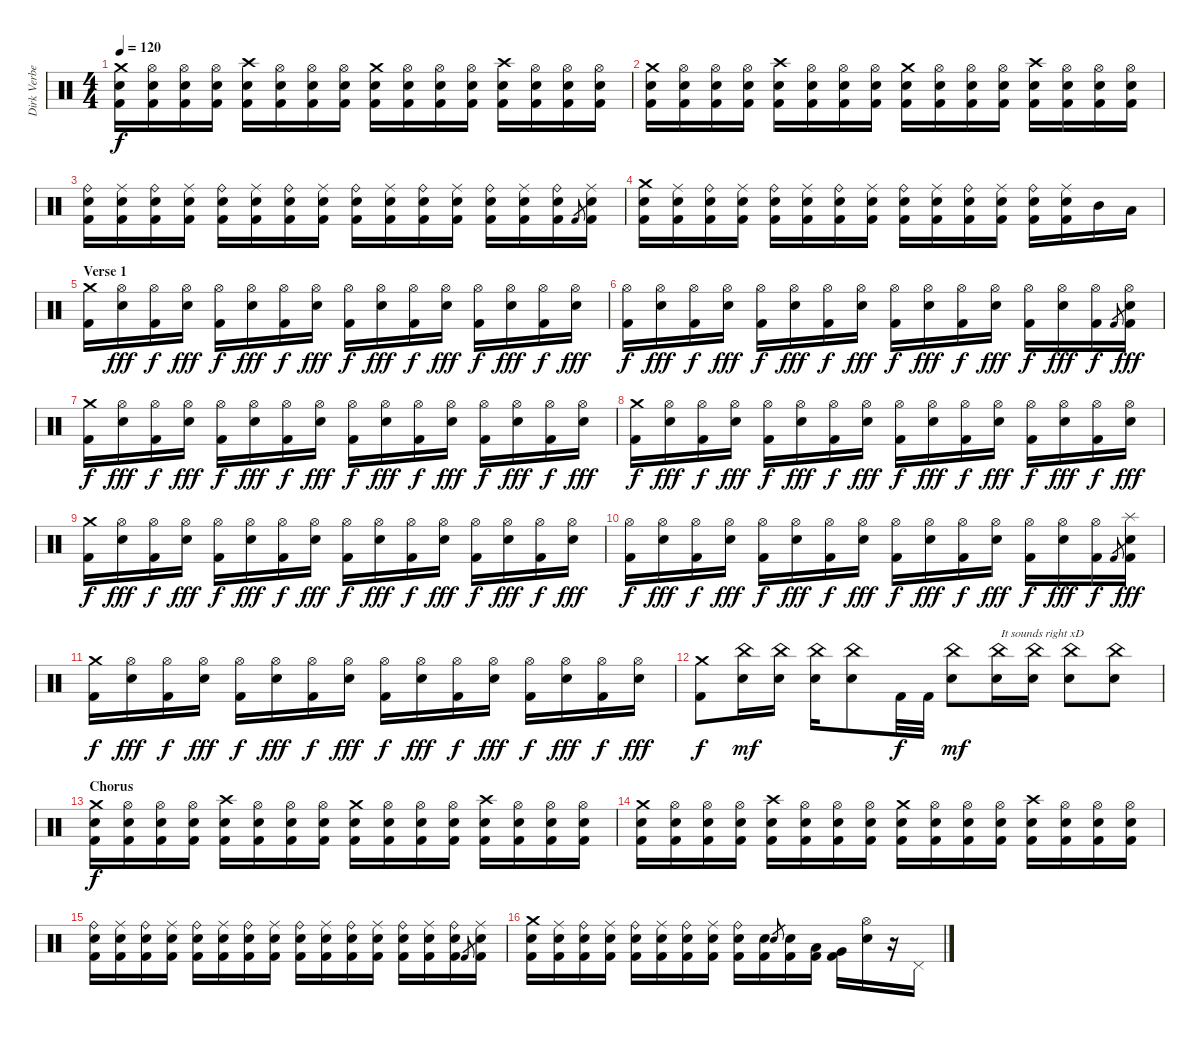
\track ("Dirk Verbeuren" "Dirk Verbe") {instrument percussion}
\staff {score}
\articulation defaults
\ts (4 4)
\tempo 120
\clef neutral
\ks c
("Kick (hit) 2" "Electric Snare (hit)" "Crash medium (hit)").16{dy f} ("Kick (hit) 2" "Electric Snare (hit)" "Hi-Hat (open)").16 ("Kick (hit) 2" "Electric Snare (hit)" "Hi-Hat (open)").16 ("Kick (hit) 2" "Electric Snare (hit)" "Hi-Hat (open)").16 ("Kick (hit) 2" "Electric Snare (hit)" "Crash high (hit)").16 ("Kick (hit) 2" "Electric Snare (hit)" "Hi-Hat (open)").16 ("Kick (hit) 2" "Electric Snare (hit)" "Hi-Hat (open)").16 ("Kick (hit) 2" "Electric Snare (hit)" "Hi-Hat (open)").16 ("Kick (hit) 2" "Electric Snare (hit)" "Crash medium (hit)").16 ("Kick (hit) 2" "Electric Snare (hit)" "Hi-Hat (open)").16 ("Kick (hit) 2" "Electric Snare (hit)" "Hi-Hat (open)").16 ("Kick (hit) 2" "Electric Snare (hit)" "Hi-Hat (open)").16 ("Kick (hit) 2" "Electric Snare (hit)" "Crash high (hit)").16 ("Kick (hit) 2" "Electric Snare (hit)" "Hi-Hat (open)").16 ("Kick (hit) 2" "Electric Snare (hit)" "Hi-Hat (open)").16 ("Kick (hit) 2" "Electric Snare (hit)" "Hi-Hat (open)").16 |
("Kick (hit) 2" "Electric Snare (hit)" "Crash medium (hit)").16 ("Kick (hit) 2" "Electric Snare (hit)" "Hi-Hat (open)").16 ("Kick (hit) 2" "Electric Snare (hit)" "Hi-Hat (open)").16 ("Kick (hit) 2" "Electric Snare (hit)" "Hi-Hat (open)").16 ("Kick (hit) 2" "Electric Snare (hit)" "Crash high (hit)").16 ("Kick (hit) 2" "Electric Snare (hit)" "Hi-Hat (open)").16 ("Kick (hit) 2" "Electric Snare (hit)" "Hi-Hat (open)").16 ("Kick (hit) 2" "Electric Snare (hit)" "Hi-Hat (open)").16 ("Kick (hit) 2" "Electric Snare (hit)" "Crash medium (hit)").16 ("Kick (hit) 2" "Electric Snare (hit)" "Hi-Hat (open)").16 ("Kick (hit) 2" "Electric Snare (hit)" "Hi-Hat (open)").16 ("Kick (hit) 2" "Electric Snare (hit)" "Hi-Hat (open)").16 ("Kick (hit) 2" "Electric Snare (hit)" "Crash high (hit)").16 ("Kick (hit) 2" "Electric Snare (hit)" "Hi-Hat (open)").16 ("Kick (hit) 2" "Electric Snare (hit)" "Hi-Hat (open)").16 ("Kick (hit) 2" "Electric Snare (hit)" "Hi-Hat (open)").16 |
("Kick (hit) 2" "Electric Snare (hit)" "Ride (bell)").16 ("Kick (hit) 2" "Electric Snare (hit)" "Ride (middle)").16 ("Kick (hit) 2" "Electric Snare (hit)" "Ride (bell)").16 ("Kick (hit) 2" "Electric Snare (hit)" "Ride (middle)").16 ("Kick (hit) 2" "Electric Snare (hit)" "Ride (bell)").16 ("Kick (hit) 2" "Electric Snare (hit)" "Ride (middle)").16 ("Kick (hit) 2" "Electric Snare (hit)" "Ride (bell)").16 ("Kick (hit) 2" "Electric Snare (hit)" "Ride (middle)").16 ("Kick (hit) 2" "Electric Snare (hit)" "Ride (bell)").16 ("Kick (hit) 2" "Electric Snare (hit)" "Ride (middle)").16 ("Kick (hit) 2" "Electric Snare (hit)" "Ride (bell)").16 ("Kick (hit) 2" "Electric Snare (hit)" "Ride (middle)").16 ("Kick (hit) 2" "Electric Snare (hit)" "Ride (bell)").16 ("Kick (hit) 2" "Electric Snare (hit)" "Ride (middle)").16 ("Kick (hit) 2" "Electric Snare (hit)" "Ride (bell)").16 "Kick (hit) 2".8{gr} ("Kick (hit) 2" "Electric Snare (hit)" "Ride (middle)").16 |
("Kick (hit) 2" "Electric Snare (hit)" "Crash medium (hit)").16 ("Kick (hit) 2" "Electric Snare (hit)" "Ride (middle)").16 ("Kick (hit) 2" "Electric Snare (hit)" "Ride (bell)").16 ("Kick (hit) 2" "Electric Snare (hit)" "Ride (middle)").16 ("Kick (hit) 2" "Electric Snare (hit)" "Ride (bell)").16 ("Kick (hit) 2" "Electric Snare (hit)" "Ride (middle)").16 ("Kick (hit) 2" "Electric Snare (hit)" "Ride (bell)").16 ("Kick (hit) 2" "Electric Snare (hit)" "Ride (middle)").16 ("Kick (hit) 2" "Electric Snare (hit)" "Ride (bell)").16 ("Kick (hit) 2" "Electric Snare (hit)" "Ride (middle)").16 ("Kick (hit) 2" "Electric Snare (hit)" "Ride (bell)").16 ("Kick (hit) 2" "Electric Snare (hit)" "Ride (middle)").16 ("Kick (hit) 2" "Electric Snare (hit)" "Ride (bell)").16 ("Kick (hit) 2" "Electric Snare (hit)" "Ride (middle)").16 "Mid Tom (hit)".16 "Low Tom (hit)".16 |
\section ("" "Verse 1")
("Kick (hit) 2" "Crash medium (hit)").16 ("Electric Snare (hit)" "Hi-Hat (open)").16{dy fff} ("Kick (hit) 2" "Hi-Hat (open)").16{dy f} ("Electric Snare (hit)" "Hi-Hat (open)").16{dy fff} ("Kick (hit) 2" "Hi-Hat (open)").16{dy f} ("Electric Snare (hit)" "Hi-Hat (open)").16{dy fff} ("Kick (hit) 2" "Hi-Hat (open)").16{dy f} ("Electric Snare (hit)" "Hi-Hat (open)").16{dy fff} ("Kick (hit) 2" "Hi-Hat (open)").16{dy f} ("Electric Snare (hit)" "Hi-Hat (open)").16{dy fff} ("Kick (hit) 2" "Hi-Hat (open)").16{dy f} ("Electric Snare (hit)" "Hi-Hat (open)").16{dy fff} ("Kick (hit) 2" "Hi-Hat (open)").16{dy f} ("Electric Snare (hit)" "Hi-Hat (open)").16{dy fff} ("Kick (hit) 2" "Hi-Hat (open)").16{dy f} ("Electric Snare (hit)" "Hi-Hat (open)").16{dy fff} |
("Kick (hit) 2" "Hi-Hat (open)").16{dy f} ("Electric Snare (hit)" "Hi-Hat (open)").16{dy fff} ("Kick (hit) 2" "Hi-Hat (open)").16{dy f} ("Electric Snare (hit)" "Hi-Hat (open)").16{dy fff} ("Kick (hit) 2" "Hi-Hat (open)").16{dy f} ("Electric Snare (hit)" "Hi-Hat (open)").16{dy fff} ("Kick (hit) 2" "Hi-Hat (open)").16{dy f} ("Electric Snare (hit)" "Hi-Hat (open)").16{dy fff} ("Kick (hit) 2" "Hi-Hat (open)").16{dy f} ("Electric Snare (hit)" "Hi-Hat (open)").16{dy fff} ("Kick (hit) 2" "Hi-Hat (open)").16{dy f} ("Electric Snare (hit)" "Hi-Hat (open)").16{dy fff} ("Kick (hit) 2" "Hi-Hat (open)").16{dy f} ("Electric Snare (hit)" "Hi-Hat (open)").16{dy fff} ("Kick (hit) 2" "Hi-Hat (open)").16{dy f} "Kick (hit) 2".8{gr} ("Kick (hit) 2" "Electric Snare (hit)" "Hi-Hat (open)").16{dy fff} |
("Kick (hit) 2" "Crash medium (hit)").16{dy f} ("Electric Snare (hit)" "Hi-Hat (open)").16{dy fff} ("Kick (hit) 2" "Hi-Hat (open)").16{dy f} ("Electric Snare (hit)" "Hi-Hat (open)").16{dy fff} ("Kick (hit) 2" "Hi-Hat (open)").16{dy f} ("Electric Snare (hit)" "Hi-Hat (open)").16{dy fff} ("Kick (hit) 2" "Hi-Hat (open)").16{dy f} ("Electric Snare (hit)" "Hi-Hat (open)").16{dy fff} ("Kick (hit) 2" "Hi-Hat (open)").16{dy f} ("Electric Snare (hit)" "Hi-Hat (open)").16{dy fff} ("Kick (hit) 2" "Hi-Hat (open)").16{dy f} ("Electric Snare (hit)" "Hi-Hat (open)").16{dy fff} ("Kick (hit) 2" "Hi-Hat (open)").16{dy f} ("Electric Snare (hit)" "Hi-Hat (open)").16{dy fff} ("Kick (hit) 2" "Hi-Hat (open)").16{dy f} ("Electric Snare (hit)" "Hi-Hat (open)").16{dy fff} |
("Kick (hit) 2" "Crash medium (hit)").16{dy f} ("Electric Snare (hit)" "Hi-Hat (open)").16{dy fff} ("Kick (hit) 2" "Hi-Hat (open)").16{dy f} ("Electric Snare (hit)" "Hi-Hat (open)").16{dy fff} ("Kick (hit) 2" "Hi-Hat (open)").16{dy f} ("Electric Snare (hit)" "Hi-Hat (open)").16{dy fff} ("Kick (hit) 2" "Hi-Hat (open)").16{dy f} ("Electric Snare (hit)" "Hi-Hat (open)").16{dy fff} ("Kick (hit) 2" "Hi-Hat (open)").16{dy f} ("Electric Snare (hit)" "Hi-Hat (open)").16{dy fff} ("Kick (hit) 2" "Hi-Hat (open)").16{dy f} ("Electric Snare (hit)" "Hi-Hat (open)").16{dy fff} ("Kick (hit) 2" "Hi-Hat (open)").16{dy f} ("Electric Snare (hit)" "Hi-Hat (open)").16{dy fff} ("Kick (hit) 2" "Hi-Hat (open)").16{dy f} ("Electric Snare (hit)" "Hi-Hat (open)").16{dy fff} |
("Kick (hit) 2" "Crash medium (hit)").16{dy f} ("Electric Snare (hit)" "Hi-Hat (open)").16{dy fff} ("Kick (hit) 2" "Hi-Hat (open)").16{dy f} ("Electric Snare (hit)" "Hi-Hat (open)").16{dy fff} ("Kick (hit) 2" "Hi-Hat (open)").16{dy f} ("Electric Snare (hit)" "Hi-Hat (open)").16{dy fff} ("Kick (hit) 2" "Hi-Hat (open)").16{dy f} ("Electric Snare (hit)" "Hi-Hat (open)").16{dy fff} ("Kick (hit) 2" "Hi-Hat (open)").16{dy f} ("Electric Snare (hit)" "Hi-Hat (open)").16{dy fff} ("Kick (hit) 2" "Hi-Hat (open)").16{dy f} ("Electric Snare (hit)" "Hi-Hat (open)").16{dy fff} ("Kick (hit) 2" "Hi-Hat (open)").16{dy f} ("Electric Snare (hit)" "Hi-Hat (open)").16{dy fff} ("Kick (hit) 2" "Hi-Hat (open)").16{dy f} ("Electric Snare (hit)" "Hi-Hat (open)").16{dy fff} |
("Kick (hit) 2" "Hi-Hat (open)").16{dy f} ("Electric Snare (hit)" "Hi-Hat (open)").16{dy fff} ("Kick (hit) 2" "Hi-Hat (open)").16{dy f} ("Electric Snare (hit)" "Hi-Hat (open)").16{dy fff} ("Kick (hit) 2" "Hi-Hat (open)").16{dy f} ("Electric Snare (hit)" "Hi-Hat (open)").16{dy fff} ("Kick (hit) 2" "Hi-Hat (open)").16{dy f} ("Electric Snare (hit)" "Hi-Hat (open)").16{dy fff} ("Kick (hit) 2" "Hi-Hat (open)").16{dy f} ("Electric Snare (hit)" "Hi-Hat (open)").16{dy fff} ("Kick (hit) 2" "Hi-Hat (open)").16{dy f} ("Electric Snare (hit)" "Hi-Hat (open)").16{dy fff} ("Kick (hit) 2" "Hi-Hat (open)").16{dy f} ("Electric Snare (hit)" "Hi-Hat (open)").16{dy fff} ("Kick (hit) 2" "Hi-Hat (open)").16{dy f} "Kick (hit) 2".8{gr} ("Kick (hit) 2" "Electric Snare (hit)" "Splash (hit)").16{dy fff} |
("Kick (hit) 2" "Crash medium (hit)").16{dy f} ("Electric Snare (hit)" "Hi-Hat (open)").16{dy fff} ("Kick (hit) 2" "Hi-Hat (open)").16{dy f} ("Electric Snare (hit)" "Hi-Hat (open)").16{dy fff} ("Kick (hit) 2" "Hi-Hat (open)").16{dy f} ("Electric Snare (hit)" "Hi-Hat (open)").16{dy fff} ("Kick (hit) 2" "Hi-Hat (open)").16{dy f} ("Electric Snare (hit)" "Hi-Hat (open)").16{dy fff} ("Kick (hit) 2" "Hi-Hat (open)").16{dy f} ("Electric Snare (hit)" "Hi-Hat (open)").16{dy fff} ("Kick (hit) 2" "Hi-Hat (open)").16{dy f} ("Electric Snare (hit)" "Hi-Hat (open)").16{dy fff} ("Kick (hit) 2" "Hi-Hat (open)").16{dy f} ("Electric Snare (hit)" "Hi-Hat (open)").16{dy fff} ("Kick (hit) 2" "Hi-Hat (open)").16{dy f} ("Electric Snare (hit)" "Hi-Hat (open)").16{dy fff} |
("Kick (hit) 2" "Crash medium (hit)").8{dy f} ("Electric Snare (hit)" "China (hit)").16{dy mf} ("Electric Snare (hit)" "China (hit)").16 ("Electric Snare (hit)" "China (hit)").16 ("Electric Snare (hit)" "China (hit)").8 "Kick (hit) 2".32{dy f} "Kick (hit) 2".32 ("Electric Snare (hit)" "China (hit)").8{dy mf} ("Electric Snare (hit)" "China (hit)").16{txt "It sounds right xD"} ("Electric Snare (hit)" "China (hit)").16 ("Electric Snare (hit)" "China (hit)").8 ("Electric Snare (hit)" "China (hit)").8 |
\section ("" "Chorus")
("Kick (hit) 2" "Electric Snare (hit)" "Crash medium (hit)").16{dy f} ("Kick (hit) 2" "Electric Snare (hit)" "Hi-Hat (open)").16 ("Kick (hit) 2" "Electric Snare (hit)" "Hi-Hat (open)").16 ("Kick (hit) 2" "Electric Snare (hit)" "Hi-Hat (open)").16 ("Kick (hit) 2" "Electric Snare (hit)" "Crash high (hit)").16 ("Kick (hit) 2" "Electric Snare (hit)" "Hi-Hat (open)").16 ("Kick (hit) 2" "Electric Snare (hit)" "Hi-Hat (open)").16 ("Kick (hit) 2" "Electric Snare (hit)" "Hi-Hat (open)").16 ("Kick (hit) 2" "Electric Snare (hit)" "Crash medium (hit)").16 ("Kick (hit) 2" "Electric Snare (hit)" "Hi-Hat (open)").16 ("Kick (hit) 2" "Electric Snare (hit)" "Hi-Hat (open)").16 ("Kick (hit) 2" "Electric Snare (hit)" "Hi-Hat (open)").16 ("Kick (hit) 2" "Electric Snare (hit)" "Crash high (hit)").16 ("Kick (hit) 2" "Electric Snare (hit)" "Hi-Hat (open)").16 ("Kick (hit) 2" "Electric Snare (hit)" "Hi-Hat (open)").16 ("Kick (hit) 2" "Electric Snare (hit)" "Hi-Hat (open)").16 |
("Kick (hit) 2" "Electric Snare (hit)" "Crash medium (hit)").16 ("Kick (hit) 2" "Electric Snare (hit)" "Hi-Hat (open)").16 ("Kick (hit) 2" "Electric Snare (hit)" "Hi-Hat (open)").16 ("Kick (hit) 2" "Electric Snare (hit)" "Hi-Hat (open)").16 ("Kick (hit) 2" "Electric Snare (hit)" "Crash high (hit)").16 ("Kick (hit) 2" "Electric Snare (hit)" "Hi-Hat (open)").16 ("Kick (hit) 2" "Electric Snare (hit)" "Hi-Hat (open)").16 ("Kick (hit) 2" "Electric Snare (hit)" "Hi-Hat (open)").16 ("Kick (hit) 2" "Electric Snare (hit)" "Crash medium (hit)").16 ("Kick (hit) 2" "Electric Snare (hit)" "Hi-Hat (open)").16 ("Kick (hit) 2" "Electric Snare (hit)" "Hi-Hat (open)").16 ("Kick (hit) 2" "Electric Snare (hit)" "Hi-Hat (open)").16 ("Kick (hit) 2" "Electric Snare (hit)" "Crash high (hit)").16 ("Kick (hit) 2" "Electric Snare (hit)" "Hi-Hat (open)").16 ("Kick (hit) 2" "Electric Snare (hit)" "Hi-Hat (open)").16 ("Kick (hit) 2" "Electric Snare (hit)" "Hi-Hat (open)").16 |
("Kick (hit) 2" "Electric Snare (hit)" "Ride (bell)").16 ("Kick (hit) 2" "Electric Snare (hit)" "Ride (middle)").16 ("Kick (hit) 2" "Electric Snare (hit)" "Ride (bell)").16 ("Kick (hit) 2" "Electric Snare (hit)" "Ride (middle)").16 ("Kick (hit) 2" "Electric Snare (hit)" "Ride (bell)").16 ("Kick (hit) 2" "Electric Snare (hit)" "Ride (middle)").16 ("Kick (hit) 2" "Electric Snare (hit)" "Ride (bell)").16 ("Kick (hit) 2" "Electric Snare (hit)" "Ride (middle)").16 ("Kick (hit) 2" "Electric Snare (hit)" "Ride (bell)").16 ("Kick (hit) 2" "Electric Snare (hit)" "Ride (middle)").16 ("Kick (hit) 2" "Electric Snare (hit)" "Ride (bell)").16 ("Kick (hit) 2" "Electric Snare (hit)" "Ride (middle)").16 ("Kick (hit) 2" "Electric Snare (hit)" "Ride (bell)").16 ("Kick (hit) 2" "Electric Snare (hit)" "Ride (middle)").16 ("Kick (hit) 2" "Electric Snare (hit)" "Ride (bell)").16 "Kick (hit) 2".8{gr} ("Kick (hit) 2" "Electric Snare (hit)" "Ride (middle)").16 |
("Kick (hit) 2" "Electric Snare (hit)" "Crash medium (hit)").16 ("Kick (hit) 2" "Electric Snare (hit)" "Ride (middle)").16 ("Kick (hit) 2" "Electric Snare (hit)" "Ride (bell)").16 ("Kick (hit) 2" "Electric Snare (hit)" "Ride (middle)").16 ("Kick (hit) 2" "Electric Snare (hit)" "Ride (bell)").16 ("Kick (hit) 2" "Electric Snare (hit)" "Ride (middle)").16 ("Kick (hit) 2" "Electric Snare (hit)" "Ride (bell)").16 ("Kick (hit) 2" "Electric Snare (hit)" "Ride (middle)").16 ("Kick (hit) 2" "Electric Snare (hit)" "Ride (bell)").16 ("Kick (hit) 2" "Electric Snare (hit)").16 "Electric Snare (hit)".8{gr} ("Kick (hit) 2" "Electric Snare (hit)").16 ("Kick (hit) 2" "Low Tom (hit)").16 ("Kick (hit) 2" "Very Low Tom (hit)").16 ("Hi-Hat (open)" "Electric Snare (hit)").16 r.16 "Pedal Hi-Hat (hit)".16
